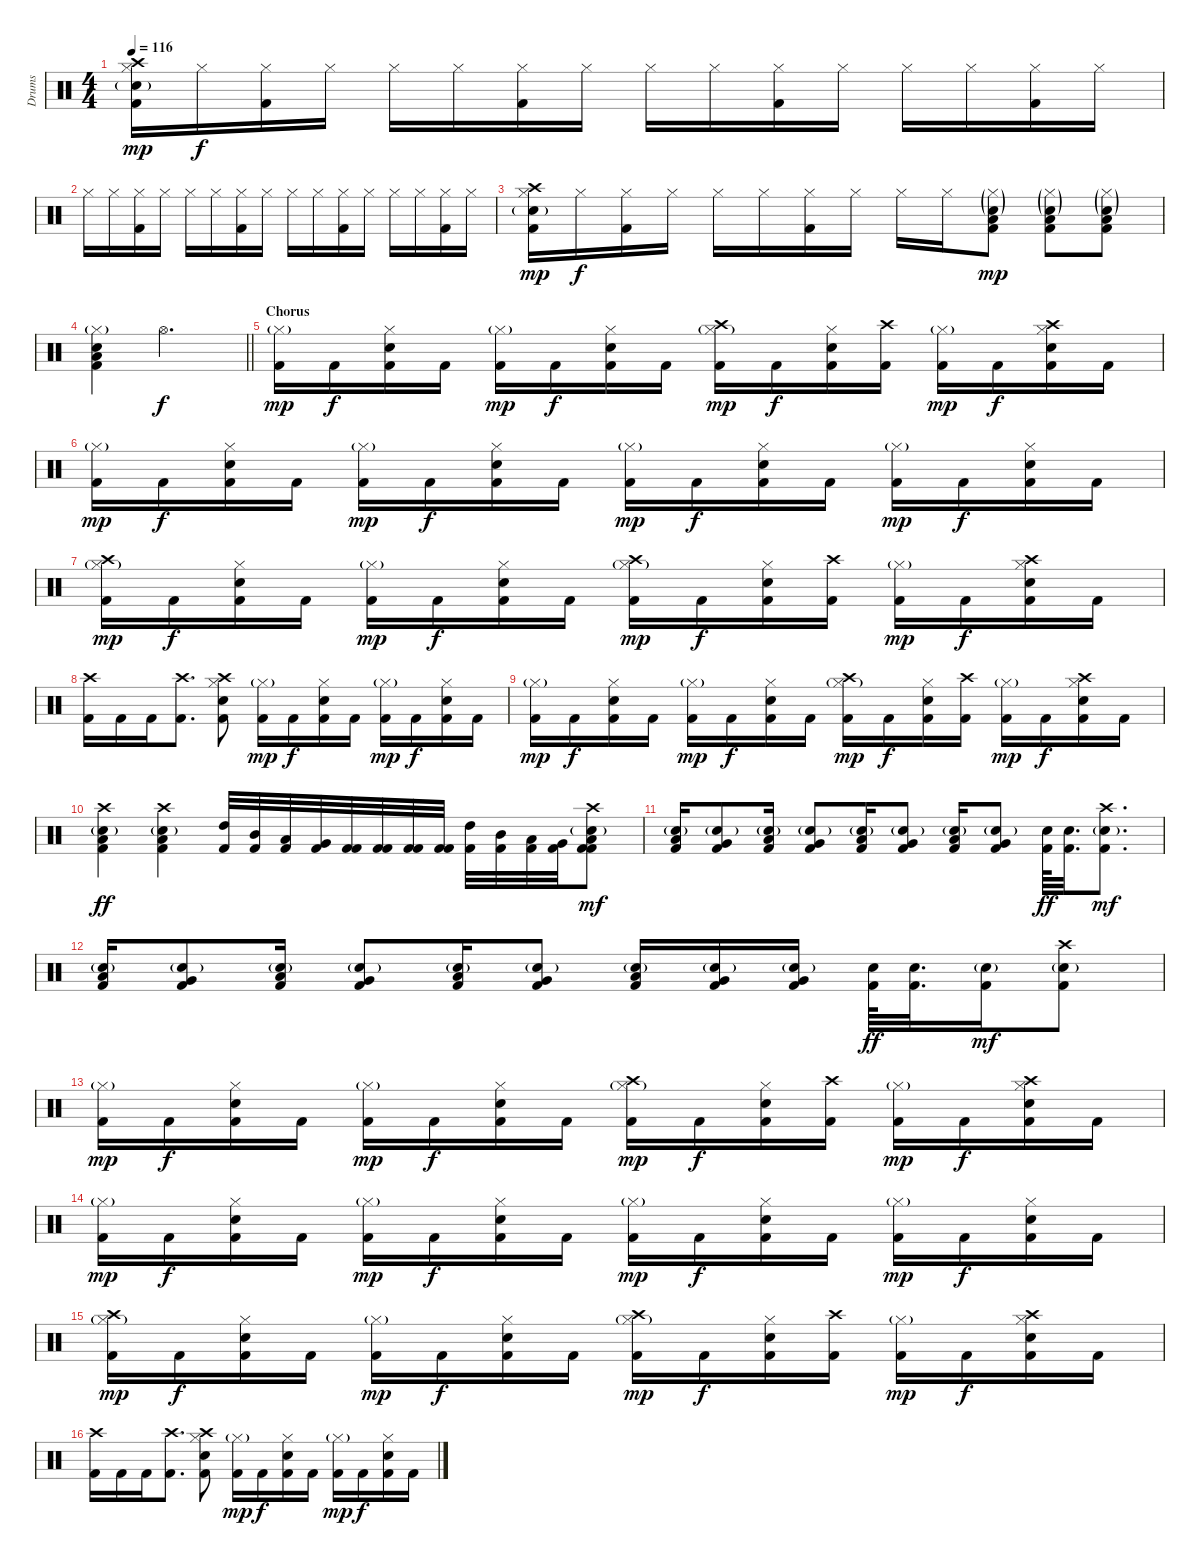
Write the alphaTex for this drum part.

\track ("Drums" "Drums") {instrument percussion}
\staff {score}
\articulation defaults
\ts (4 4)
\tempo 116
\clef neutral
\ks c
("Hi-Hat (closed)" "Crash high (hit)" "Kick (hit) 2" "Electric Snare (hit)"{g}).16{dy mp} "Hi-Hat (closed)".16{dy f} ("Hi-Hat (closed)" "Kick (hit) 2").16 "Hi-Hat (closed)".16 "Hi-Hat (closed)".16 "Hi-Hat (closed)".16 ("Hi-Hat (closed)" "Kick (hit) 2").16 "Hi-Hat (closed)".16 "Hi-Hat (closed)".16 "Hi-Hat (closed)".16 ("Hi-Hat (closed)" "Kick (hit) 2").16 "Hi-Hat (closed)".16 "Hi-Hat (closed)".16 "Hi-Hat (closed)".16 ("Hi-Hat (closed)" "Kick (hit) 2").16 "Hi-Hat (closed)".16 |
"Hi-Hat (closed)".16 "Hi-Hat (closed)".16 ("Hi-Hat (closed)" "Kick (hit) 2").16 "Hi-Hat (closed)".16 "Hi-Hat (closed)".16 "Hi-Hat (closed)".16 ("Hi-Hat (closed)" "Kick (hit) 2").16 "Hi-Hat (closed)".16 "Hi-Hat (closed)".16 "Hi-Hat (closed)".16 ("Hi-Hat (closed)" "Kick (hit) 2").16 "Hi-Hat (closed)".16 "Hi-Hat (closed)".16 "Hi-Hat (closed)".16 ("Hi-Hat (closed)" "Kick (hit) 2").16 "Hi-Hat (closed)".16 |
("Hi-Hat (closed)" "Kick (hit) 2" "Crash high (hit)" "Electric Snare (hit)"{g}).16{dy mp} "Hi-Hat (closed)".16{dy f} ("Hi-Hat (closed)" "Kick (hit) 2").16 "Hi-Hat (closed)".16 "Hi-Hat (closed)".16 "Hi-Hat (closed)".16 ("Hi-Hat (closed)" "Kick (hit) 2").16 "Hi-Hat (closed)".16 "Hi-Hat (closed)".16 "Hi-Hat (closed)".16 ("Kick (hit) 2" "Electric Snare (hit)"{g} "Low Tom (hit)" "Hi-Hat (closed)"{g}).8{dy mp} ("Kick (hit) 2" "Electric Snare (hit)"{g} "Low Tom (hit)" "Hi-Hat (closed)"{g}).8 ("Kick (hit) 2" "Electric Snare (hit)"{g} "Low Tom (hit)" "Hi-Hat (closed)"{g}).8 |
\barLineRight lightlight
("Kick (hit) 2" "Electric Snare (hit)" "Low Tom (hit)" "Hi-Hat (closed)"{g}).4 "Hi-Hat (open)".2{d dy f} |
\section ("" "Chorus")
("Kick (hit) 2" "Hi-Hat (closed)"{g}).16{dy mp} "Kick (hit) 2".16{dy f} ("Kick (hit) 2" "Electric Snare (hit)" "Hi-Hat (closed)").16 "Kick (hit) 2".16 ("Kick (hit) 2" "Hi-Hat (closed)"{g}).16{dy mp} "Kick (hit) 2".16{dy f} ("Kick (hit) 2" "Electric Snare (hit)" "Hi-Hat (closed)").16 "Kick (hit) 2".16 ("Kick (hit) 2" "Hi-Hat (closed)"{g} "Crash high (hit)").16{dy mp} "Kick (hit) 2".16{dy f} ("Kick (hit) 2" "Electric Snare (hit)" "Hi-Hat (closed)").16 ("Kick (hit) 2" "Crash high (hit)").16 ("Kick (hit) 2" "Hi-Hat (closed)"{g}).16{dy mp} "Kick (hit) 2".16{dy f} ("Kick (hit) 2" "Electric Snare (hit)" "Hi-Hat (closed)" "Crash high (hit)").16 "Kick (hit) 2".16 |
("Kick (hit) 2" "Hi-Hat (closed)"{g}).16{dy mp} "Kick (hit) 2".16{dy f} ("Kick (hit) 2" "Electric Snare (hit)" "Hi-Hat (closed)").16 "Kick (hit) 2".16 ("Kick (hit) 2" "Hi-Hat (closed)"{g}).16{dy mp} "Kick (hit) 2".16{dy f} ("Kick (hit) 2" "Electric Snare (hit)" "Hi-Hat (closed)").16 "Kick (hit) 2".16 ("Kick (hit) 2" "Hi-Hat (closed)"{g}).16{dy mp} "Kick (hit) 2".16{dy f} ("Kick (hit) 2" "Electric Snare (hit)" "Hi-Hat (closed)").16 "Kick (hit) 2".16 ("Kick (hit) 2" "Hi-Hat (closed)"{g}).16{dy mp} "Kick (hit) 2".16{dy f} ("Kick (hit) 2" "Electric Snare (hit)" "Hi-Hat (closed)").16 "Kick (hit) 2".16 |
("Kick (hit) 2" "Hi-Hat (closed)"{g} "Crash high (hit)").16{dy mp} "Kick (hit) 2".16{dy f} ("Kick (hit) 2" "Electric Snare (hit)" "Hi-Hat (closed)").16 "Kick (hit) 2".16 ("Kick (hit) 2" "Hi-Hat (closed)"{g}).16{dy mp} "Kick (hit) 2".16{dy f} ("Kick (hit) 2" "Electric Snare (hit)" "Hi-Hat (closed)").16 "Kick (hit) 2".16 ("Kick (hit) 2" "Hi-Hat (closed)"{g} "Crash high (hit)").16{dy mp} "Kick (hit) 2".16{dy f} ("Kick (hit) 2" "Electric Snare (hit)" "Hi-Hat (closed)").16 ("Kick (hit) 2" "Crash high (hit)").16 ("Kick (hit) 2" "Hi-Hat (closed)"{g}).16{dy mp} "Kick (hit) 2".16{dy f} ("Kick (hit) 2" "Electric Snare (hit)" "Hi-Hat (closed)" "Crash high (hit)").16 "Kick (hit) 2".16 |
("Kick (hit) 2" "Crash high (hit)").16 "Kick (hit) 2".16 "Kick (hit) 2".16 ("Kick (hit) 2" "Crash high (hit)").8{d} ("Kick (hit) 2" "Crash high (hit)" "Hi-Hat (closed)" "Electric Snare (hit)").8 ("Kick (hit) 2" "Hi-Hat (closed)"{g}).16{dy mp} "Kick (hit) 2".16{dy f} ("Kick (hit) 2" "Electric Snare (hit)" "Hi-Hat (closed)").16 "Kick (hit) 2".16 ("Kick (hit) 2" "Hi-Hat (closed)"{g}).16{dy mp} "Kick (hit) 2".16{dy f} ("Kick (hit) 2" "Electric Snare (hit)" "Hi-Hat (closed)").16 "Kick (hit) 2".16 |
("Kick (hit) 2" "Hi-Hat (closed)"{g}).16{dy mp} "Kick (hit) 2".16{dy f} ("Kick (hit) 2" "Electric Snare (hit)" "Hi-Hat (closed)").16 "Kick (hit) 2".16 ("Kick (hit) 2" "Hi-Hat (closed)"{g}).16{dy mp} "Kick (hit) 2".16{dy f} ("Kick (hit) 2" "Electric Snare (hit)" "Hi-Hat (closed)").16 "Kick (hit) 2".16 ("Kick (hit) 2" "Hi-Hat (closed)"{g} "Crash high (hit)").16{dy mp} "Kick (hit) 2".16{dy f} ("Kick (hit) 2" "Electric Snare (hit)" "Hi-Hat (closed)").16 ("Kick (hit) 2" "Crash high (hit)").16 ("Kick (hit) 2" "Hi-Hat (closed)"{g}).16{dy mp} "Kick (hit) 2".16{dy f} ("Kick (hit) 2" "Electric Snare (hit)" "Hi-Hat (closed)" "Crash high (hit)").16 "Kick (hit) 2".16 |
("Kick (hit) 2" "Electric Snare (hit)"{g} "Low Tom (hit)" "Crash high (hit)").4{dy ff} ("Kick (hit) 2" "Electric Snare (hit)"{g} "Low Tom (hit)" "Crash high (hit)").4 ("Kick (hit) 2" "High Tom (hit)").32 ("Kick (hit) 2" "Mid Tom (hit)").32 ("Kick (hit) 2" "Low Tom (hit)").32 ("Kick (hit) 2" "Very Low Tom (hit)").32 ("Kick (hit) 2" "Kick (hit) 2").32 ("Kick (hit) 2" "Kick (hit) 2").32 ("Kick (hit) 2" "Kick (hit) 2").32 ("Kick (hit) 2" "Kick (hit) 2").32 ("Kick (hit) 2" "High Tom (hit)").32 ("Kick (hit) 2" "Mid Tom (hit)").32 ("Kick (hit) 2" "Low Tom (hit)").32 ("Kick (hit) 2" "Very Low Tom (hit)").32 ("Kick (hit) 2" "Kick (hit) 2" "Crash high (hit)" "Low Floor Tom (hit)" "Electric Snare (hit)"{g}).8{dy mf} |
("Kick (hit) 2" "Low Tom (hit)" "Electric Snare (hit)"{g}).16 ("Kick (hit) 2" "Very Low Tom (hit)" "Electric Snare (hit)"{g}).8 ("Kick (hit) 2" "Low Tom (hit)" "Electric Snare (hit)"{g}).16 ("Kick (hit) 2" "Very Low Tom (hit)" "Electric Snare (hit)"{g}).8 ("Kick (hit) 2" "Low Tom (hit)" "Electric Snare (hit)"{g}).16 ("Kick (hit) 2" "Very Low Tom (hit)" "Electric Snare (hit)"{g}).8 ("Kick (hit) 2" "Low Tom (hit)" "Electric Snare (hit)"{g}).16 ("Kick (hit) 2" "Very Low Tom (hit)" "Electric Snare (hit)"{g}).8 ("Electric Snare (hit)" "Kick (hit) 2").64{dy ff} ("Electric Snare (hit)" "Kick (hit) 2").32{d} ("Kick (hit) 2" "Crash high (hit)" "Electric Snare (hit)"{g}).8{d dy mf} |
("Kick (hit) 2" "Low Tom (hit)" "Electric Snare (hit)"{g}).16 ("Kick (hit) 2" "Very Low Tom (hit)" "Electric Snare (hit)"{g}).8 ("Kick (hit) 2" "Low Tom (hit)" "Electric Snare (hit)"{g}).16 ("Kick (hit) 2" "Very Low Tom (hit)" "Electric Snare (hit)"{g}).8 ("Kick (hit) 2" "Low Tom (hit)" "Electric Snare (hit)"{g}).16 ("Kick (hit) 2" "Very Low Tom (hit)" "Electric Snare (hit)"{g}).8 ("Kick (hit) 2" "Low Tom (hit)" "Electric Snare (hit)"{g}).16 ("Kick (hit) 2" "Very Low Tom (hit)" "Electric Snare (hit)"{g}).16 ("Kick (hit) 2" "Very Low Tom (hit)" "Electric Snare (hit)"{g}).16 ("Electric Snare (hit)" "Kick (hit) 2").64{dy ff} ("Electric Snare (hit)" "Kick (hit) 2").32{d} ("Kick (hit) 2" "Electric Snare (hit)"{g}).16{dy mf} ("Kick (hit) 2" "Crash high (hit)" "Electric Snare (hit)"{g}).8 |
("Kick (hit) 2" "Hi-Hat (closed)"{g}).16{dy mp} "Kick (hit) 2".16{dy f} ("Kick (hit) 2" "Electric Snare (hit)" "Hi-Hat (closed)").16 "Kick (hit) 2".16 ("Kick (hit) 2" "Hi-Hat (closed)"{g}).16{dy mp} "Kick (hit) 2".16{dy f} ("Kick (hit) 2" "Electric Snare (hit)" "Hi-Hat (closed)").16 "Kick (hit) 2".16 ("Kick (hit) 2" "Hi-Hat (closed)"{g} "Crash high (hit)").16{dy mp} "Kick (hit) 2".16{dy f} ("Kick (hit) 2" "Electric Snare (hit)" "Hi-Hat (closed)").16 ("Kick (hit) 2" "Crash high (hit)").16 ("Kick (hit) 2" "Hi-Hat (closed)"{g}).16{dy mp} "Kick (hit) 2".16{dy f} ("Kick (hit) 2" "Electric Snare (hit)" "Hi-Hat (closed)" "Crash high (hit)").16 "Kick (hit) 2".16 |
("Kick (hit) 2" "Hi-Hat (closed)"{g}).16{dy mp} "Kick (hit) 2".16{dy f} ("Kick (hit) 2" "Electric Snare (hit)" "Hi-Hat (closed)").16 "Kick (hit) 2".16 ("Kick (hit) 2" "Hi-Hat (closed)"{g}).16{dy mp} "Kick (hit) 2".16{dy f} ("Kick (hit) 2" "Electric Snare (hit)" "Hi-Hat (closed)").16 "Kick (hit) 2".16 ("Kick (hit) 2" "Hi-Hat (closed)"{g}).16{dy mp} "Kick (hit) 2".16{dy f} ("Kick (hit) 2" "Electric Snare (hit)" "Hi-Hat (closed)").16 "Kick (hit) 2".16 ("Kick (hit) 2" "Hi-Hat (closed)"{g}).16{dy mp} "Kick (hit) 2".16{dy f} ("Kick (hit) 2" "Electric Snare (hit)" "Hi-Hat (closed)").16 "Kick (hit) 2".16 |
("Kick (hit) 2" "Hi-Hat (closed)"{g} "Crash high (hit)").16{dy mp} "Kick (hit) 2".16{dy f} ("Kick (hit) 2" "Electric Snare (hit)" "Hi-Hat (closed)").16 "Kick (hit) 2".16 ("Kick (hit) 2" "Hi-Hat (closed)"{g}).16{dy mp} "Kick (hit) 2".16{dy f} ("Kick (hit) 2" "Electric Snare (hit)" "Hi-Hat (closed)").16 "Kick (hit) 2".16 ("Kick (hit) 2" "Hi-Hat (closed)"{g} "Crash high (hit)").16{dy mp} "Kick (hit) 2".16{dy f} ("Kick (hit) 2" "Electric Snare (hit)" "Hi-Hat (closed)").16 ("Kick (hit) 2" "Crash high (hit)").16 ("Kick (hit) 2" "Hi-Hat (closed)"{g}).16{dy mp} "Kick (hit) 2".16{dy f} ("Kick (hit) 2" "Electric Snare (hit)" "Hi-Hat (closed)" "Crash high (hit)").16 "Kick (hit) 2".16 |
("Kick (hit) 2" "Crash high (hit)").16 "Kick (hit) 2".16 "Kick (hit) 2".16 ("Kick (hit) 2" "Crash high (hit)").8{d} ("Kick (hit) 2" "Crash high (hit)" "Hi-Hat (closed)" "Electric Snare (hit)").8 ("Kick (hit) 2" "Hi-Hat (closed)"{g}).16{dy mp} "Kick (hit) 2".16{dy f} ("Kick (hit) 2" "Electric Snare (hit)" "Hi-Hat (closed)").16 "Kick (hit) 2".16 ("Kick (hit) 2" "Hi-Hat (closed)"{g}).16{dy mp} "Kick (hit) 2".16{dy f} ("Kick (hit) 2" "Electric Snare (hit)" "Hi-Hat (closed)").16 "Kick (hit) 2".16
